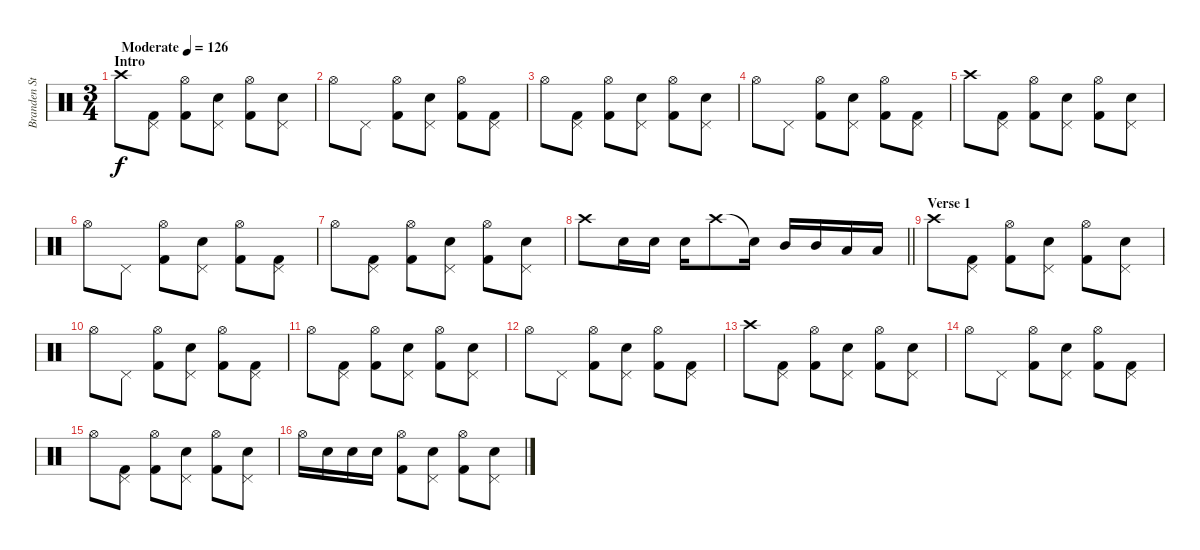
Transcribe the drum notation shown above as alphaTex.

\track ("Branden Steineckert [Drums]" "Branden St") {instrument percussion}
\staff {score}
\articulation defaults
\ts (3 4)
\section ("" "Intro")
\tempo (126 "Moderate")
\clef neutral
\ks c "Crash high (hit)".8{dy f}
("Pedal Hi-Hat (hit)" "Kick (hit) 2").8 ("Hi-Hat (open)" "Kick (hit) 2").8 ("Pedal Hi-Hat (hit)" "Electric Snare (hit)").8 ("Hi-Hat (open)" "Kick (hit) 2").8 ("Pedal Hi-Hat (hit)" "Electric Snare (hit)").8 |
"Hi-Hat (open)".8 "Pedal Hi-Hat (hit)".8 ("Hi-Hat (open)" "Kick (hit) 2").8 ("Pedal Hi-Hat (hit)" "Electric Snare (hit)").8 ("Hi-Hat (open)" "Kick (hit) 2").8 ("Pedal Hi-Hat (hit)" "Kick (hit) 2").8 |
"Hi-Hat (open)".8 ("Pedal Hi-Hat (hit)" "Kick (hit) 2").8 ("Hi-Hat (open)" "Kick (hit) 2").8 ("Pedal Hi-Hat (hit)" "Electric Snare (hit)").8 ("Hi-Hat (open)" "Kick (hit) 2").8 ("Pedal Hi-Hat (hit)" "Electric Snare (hit)").8 |
"Hi-Hat (open)".8 "Pedal Hi-Hat (hit)".8 ("Hi-Hat (open)" "Kick (hit) 2").8 ("Pedal Hi-Hat (hit)" "Electric Snare (hit)").8 ("Hi-Hat (open)" "Kick (hit) 2").8 ("Pedal Hi-Hat (hit)" "Kick (hit) 2").8 |
"Crash high (hit)".8 ("Pedal Hi-Hat (hit)" "Kick (hit) 2").8 ("Hi-Hat (open)" "Kick (hit) 2").8 ("Pedal Hi-Hat (hit)" "Electric Snare (hit)").8 ("Hi-Hat (open)" "Kick (hit) 2").8 ("Pedal Hi-Hat (hit)" "Electric Snare (hit)").8 |
"Hi-Hat (open)".8 "Pedal Hi-Hat (hit)".8 ("Hi-Hat (open)" "Kick (hit) 2").8 ("Pedal Hi-Hat (hit)" "Electric Snare (hit)").8 ("Hi-Hat (open)" "Kick (hit) 2").8 ("Pedal Hi-Hat (hit)" "Kick (hit) 2").8 |
"Hi-Hat (open)".8 ("Pedal Hi-Hat (hit)" "Kick (hit) 2").8 ("Hi-Hat (open)" "Kick (hit) 2").8 ("Pedal Hi-Hat (hit)" "Electric Snare (hit)").8 ("Hi-Hat (open)" "Kick (hit) 2").8 ("Pedal Hi-Hat (hit)" "Electric Snare (hit)").8 |
\barLineRight lightlight "Crash high (hit)".8 "Electric Snare (hit)".16 "Electric Snare (hit)".16 "Electric Snare (hit)".16 "Crash high (hit)".8 "Snare (hit)"{t}.16 "Mid Tom (hit)".16 "Mid Tom (hit)".16 "Low Tom (hit)".16 "Low Tom (hit)".16
|
\section ("" "Verse 1")
"Crash high (hit)".8 ("Pedal Hi-Hat (hit)" "Kick (hit) 2").8 ("Hi-Hat (open)" "Kick (hit) 2").8 ("Pedal Hi-Hat (hit)" "Electric Snare (hit)").8 ("Hi-Hat (open)" "Kick (hit) 2").8 ("Pedal Hi-Hat (hit)" "Electric Snare (hit)").8 |
"Hi-Hat (open)".8 "Pedal Hi-Hat (hit)".8 ("Hi-Hat (open)" "Kick (hit) 2").8 ("Pedal Hi-Hat (hit)" "Electric Snare (hit)").8 ("Hi-Hat (open)" "Kick (hit) 2").8 ("Pedal Hi-Hat (hit)" "Kick (hit) 2").8 |
"Hi-Hat (open)".8 ("Pedal Hi-Hat (hit)" "Kick (hit) 2").8 ("Hi-Hat (open)" "Kick (hit) 2").8 ("Pedal Hi-Hat (hit)" "Electric Snare (hit)").8 ("Hi-Hat (open)" "Kick (hit) 2").8 ("Pedal Hi-Hat (hit)" "Electric Snare (hit)").8 |
"Hi-Hat (open)".8 "Pedal Hi-Hat (hit)".8 ("Hi-Hat (open)" "Kick (hit) 2").8 ("Pedal Hi-Hat (hit)" "Electric Snare (hit)").8 ("Hi-Hat (open)" "Kick (hit) 2").8 ("Pedal Hi-Hat (hit)" "Kick (hit) 2").8 |
"Crash high (hit)".8 ("Pedal Hi-Hat (hit)" "Kick (hit) 2").8 ("Hi-Hat (open)" "Kick (hit) 2").8 ("Pedal Hi-Hat (hit)" "Electric Snare (hit)").8 ("Hi-Hat (open)" "Kick (hit) 2").8 ("Pedal Hi-Hat (hit)" "Electric Snare (hit)").8 |
"Hi-Hat (open)".8 "Pedal Hi-Hat (hit)".8 ("Hi-Hat (open)" "Kick (hit) 2").8 ("Pedal Hi-Hat (hit)" "Electric Snare (hit)").8 ("Hi-Hat (open)" "Kick (hit) 2").8 ("Pedal Hi-Hat (hit)" "Kick (hit) 2").8 |
"Hi-Hat (open)".8 ("Pedal Hi-Hat (hit)" "Kick (hit) 2").8 ("Hi-Hat (open)" "Kick (hit) 2").8 ("Pedal Hi-Hat (hit)" "Electric Snare (hit)").8 ("Hi-Hat (open)" "Kick (hit) 2").8 ("Pedal Hi-Hat (hit)" "Electric Snare (hit)").8 |
"Hi-Hat (open)".16 "Electric Snare (hit)".16 "Electric Snare (hit)".16 "Electric Snare (hit)".16 ("Hi-Hat (open)" "Kick (hit) 2").8 ("Pedal Hi-Hat (hit)" "Electric Snare (hit)").8 ("Hi-Hat (open)" "Kick (hit) 2").8 ("Pedal Hi-Hat (hit)" "Electric Snare (hit)").8
